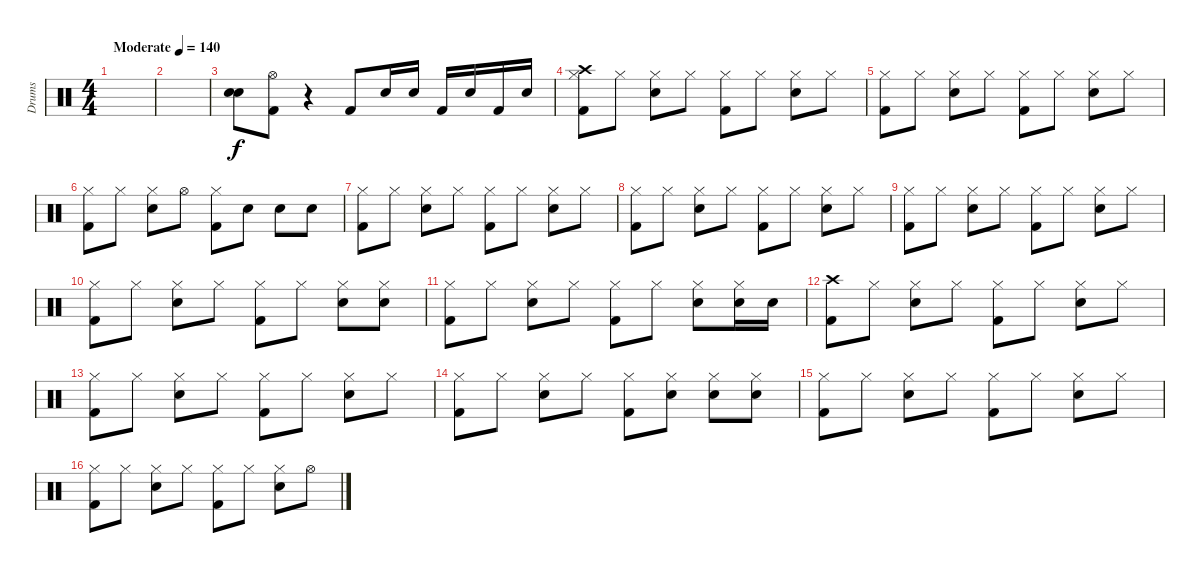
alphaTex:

\track ("Drums" "Drums") {instrument percussion}
\staff {score}
\articulation defaults
\ts (4 4)
\tempo (140 "Moderate")
\clef neutral
\ks c
|
|
("Snare (hit)" "Snare (hit)").8 ("Hi-Hat (open)" "Kick (hit) 2").8 r.4 "Kick (hit) 2".8 "Snare (hit) 2".16 "Snare (hit) 2".16 "Kick (hit) 2".16 "Snare (hit) 2".16 "Kick (hit) 2".16 "Snare (hit) 2".16 |
("Crash high (hit)" "Hi-Hat (closed)" "Kick (hit) 2").8 "Hi-Hat (closed)".8 ("Hi-Hat (closed)" "Snare (hit) 2").8 "Hi-Hat (closed)".8 ("Hi-Hat (closed)" "Kick (hit) 2").8 "Hi-Hat (closed)".8 ("Hi-Hat (closed)" "Snare (hit) 2").8 "Hi-Hat (closed)".8 |
("Hi-Hat (closed)" "Kick (hit) 2").8 "Hi-Hat (closed)".8 ("Hi-Hat (closed)" "Snare (hit) 2").8 "Hi-Hat (closed)".8 ("Hi-Hat (closed)" "Kick (hit) 2").8 "Hi-Hat (closed)".8 ("Hi-Hat (closed)" "Snare (hit) 2").8 "Hi-Hat (closed)".8 |
("Hi-Hat (closed)" "Kick (hit) 2").8 "Hi-Hat (closed)".8 ("Hi-Hat (closed)" "Snare (hit) 2").8 "Hi-Hat (open)".8 ("Hi-Hat (closed)" "Kick (hit) 2").8 "Snare (hit) 2".8 "Snare (hit) 2".8 "Snare (hit) 2".8 |
("Hi-Hat (closed)" "Kick (hit) 2").8 "Hi-Hat (closed)".8 ("Hi-Hat (closed)" "Snare (hit) 2").8 "Hi-Hat (closed)".8 ("Hi-Hat (closed)" "Kick (hit) 2").8 "Hi-Hat (closed)".8 ("Hi-Hat (closed)" "Snare (hit) 2").8 "Hi-Hat (closed)".8 |
("Hi-Hat (closed)" "Kick (hit) 2").8 "Hi-Hat (closed)".8 ("Hi-Hat (closed)" "Snare (hit) 2").8 "Hi-Hat (closed)".8 ("Hi-Hat (closed)" "Kick (hit) 2").8 "Hi-Hat (closed)".8 ("Hi-Hat (closed)" "Snare (hit) 2").8 "Hi-Hat (closed)".8 |
("Hi-Hat (closed)" "Kick (hit) 2").8 "Hi-Hat (closed)".8 ("Hi-Hat (closed)" "Snare (hit) 2").8 "Hi-Hat (closed)".8 ("Hi-Hat (closed)" "Kick (hit) 2").8 "Hi-Hat (closed)".8 ("Hi-Hat (closed)" "Snare (hit) 2").8 "Hi-Hat (closed)".8 |
("Hi-Hat (closed)" "Kick (hit) 2").8 "Hi-Hat (closed)".8 ("Hi-Hat (closed)" "Snare (hit) 2").8 "Hi-Hat (closed)".8 ("Hi-Hat (closed)" "Kick (hit) 2").8 "Hi-Hat (closed)".8 ("Hi-Hat (closed)" "Snare (hit) 2").8 ("Hi-Hat (closed)" "Snare (hit) 2").8 |
("Hi-Hat (closed)" "Kick (hit) 2").8 "Hi-Hat (closed)".8 ("Hi-Hat (closed)" "Snare (hit) 2").8 "Hi-Hat (closed)".8 ("Hi-Hat (closed)" "Kick (hit) 2").8 "Hi-Hat (closed)".8 ("Snare (hit) 2" "Hi-Hat (closed)").8 ("Hi-Hat (closed)" "Snare (hit) 2").16 "Snare (hit) 2".16 |
("Crash high (hit)" "Kick (hit) 2").8 "Hi-Hat (closed)".8 ("Hi-Hat (closed)" "Snare (hit) 2").8 "Hi-Hat (closed)".8 ("Hi-Hat (closed)" "Kick (hit) 2").8 "Hi-Hat (closed)".8 ("Hi-Hat (closed)" "Snare (hit) 2").8 "Hi-Hat (closed)".8 |
("Hi-Hat (closed)" "Kick (hit) 2").8 "Hi-Hat (closed)".8 ("Hi-Hat (closed)" "Snare (hit) 2").8 "Hi-Hat (closed)".8 ("Hi-Hat (closed)" "Kick (hit) 2").8 "Hi-Hat (closed)".8 ("Hi-Hat (closed)" "Snare (hit) 2").8 "Hi-Hat (closed)".8 |
("Hi-Hat (closed)" "Kick (hit) 2").8 "Hi-Hat (closed)".8 ("Hi-Hat (closed)" "Snare (hit) 2").8 "Hi-Hat (closed)".8 ("Hi-Hat (closed)" "Kick (hit) 2").8 ("Hi-Hat (closed)" "Snare (hit) 2").8 ("Hi-Hat (closed)" "Snare (hit) 2").8 ("Hi-Hat (closed)" "Snare (hit) 2").8 |
("Hi-Hat (closed)" "Kick (hit) 2").8 "Hi-Hat (closed)".8 ("Hi-Hat (closed)" "Snare (hit) 2").8 "Hi-Hat (closed)".8 ("Hi-Hat (closed)" "Kick (hit) 2").8 "Hi-Hat (closed)".8 ("Hi-Hat (closed)" "Snare (hit) 2").8 "Hi-Hat (closed)".8 |
("Hi-Hat (closed)" "Kick (hit) 2").8 "Hi-Hat (closed)".8 ("Hi-Hat (closed)" "Snare (hit) 2").8 "Hi-Hat (closed)".8 ("Hi-Hat (closed)" "Kick (hit) 2").8 "Hi-Hat (closed)".8 ("Hi-Hat (closed)" "Snare (hit) 2").8 "Hi-Hat (open)".8
